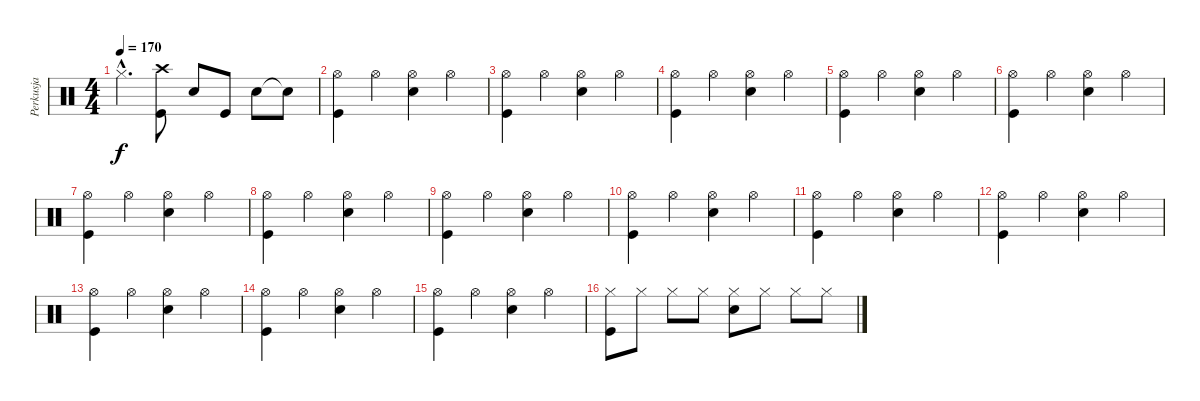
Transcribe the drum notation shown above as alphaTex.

\track ("Perkusja" "Perkusja") {instrument percussion}
\staff {score}
\articulation defaults
\ts (4 4)
\tempo 170
\clef neutral
\ks c "Hi-Hat (closed)"{hac}.4{d dy f}
("Crash high (hit)" "Kick (hit)").8 "Electric Snare (hit)".8 "Kick (hit)".8 "Electric Snare (hit)".8 "Snare (hit)"{t}.8 |
("Hi-Hat (open)" "Kick (hit)").4 "Hi-Hat (open)".4 ("Hi-Hat (open)" "Electric Snare (hit)").4 "Hi-Hat (open)".4 |
("Hi-Hat (open)" "Kick (hit)").4 "Hi-Hat (open)".4 ("Hi-Hat (open)" "Electric Snare (hit)").4 "Hi-Hat (open)".4 |
("Hi-Hat (open)" "Kick (hit)").4 "Hi-Hat (open)".4 ("Hi-Hat (open)" "Electric Snare (hit)").4 "Hi-Hat (open)".4 |
("Hi-Hat (open)" "Kick (hit)").4 "Hi-Hat (open)".4 ("Hi-Hat (open)" "Electric Snare (hit)").4 "Hi-Hat (open)".4 |
("Hi-Hat (open)" "Kick (hit)").4 "Hi-Hat (open)".4 ("Hi-Hat (open)" "Electric Snare (hit)").4 "Hi-Hat (open)".4 |
("Hi-Hat (open)" "Kick (hit)").4 "Hi-Hat (open)".4 ("Hi-Hat (open)" "Electric Snare (hit)").4 "Hi-Hat (open)".4 |
("Hi-Hat (open)" "Kick (hit)").4 "Hi-Hat (open)".4 ("Hi-Hat (open)" "Electric Snare (hit)").4 "Hi-Hat (open)".4 |
("Hi-Hat (open)" "Kick (hit)").4 "Hi-Hat (open)".4 ("Hi-Hat (open)" "Electric Snare (hit)").4 "Hi-Hat (open)".4 |
("Hi-Hat (open)" "Kick (hit)").4 "Hi-Hat (open)".4 ("Hi-Hat (open)" "Electric Snare (hit)").4 "Hi-Hat (open)".4 |
("Hi-Hat (open)" "Kick (hit)").4 "Hi-Hat (open)".4 ("Hi-Hat (open)" "Electric Snare (hit)").4 "Hi-Hat (open)".4 |
("Hi-Hat (open)" "Kick (hit)").4 "Hi-Hat (open)".4 ("Hi-Hat (open)" "Electric Snare (hit)").4 "Hi-Hat (open)".4 |
("Hi-Hat (open)" "Kick (hit)").4 "Hi-Hat (open)".4 ("Hi-Hat (open)" "Electric Snare (hit)").4 "Hi-Hat (open)".4 |
("Hi-Hat (open)" "Kick (hit)").4 "Hi-Hat (open)".4 ("Hi-Hat (open)" "Electric Snare (hit)").4 "Hi-Hat (open)".4 |
("Hi-Hat (open)" "Kick (hit)").4 "Hi-Hat (open)".4 ("Hi-Hat (open)" "Electric Snare (hit)").4 "Hi-Hat (open)".4 |
("Hi-Hat (closed)" "Kick (hit)").8 "Hi-Hat (closed)".8 "Hi-Hat (closed)".8 "Hi-Hat (closed)".8 ("Hi-Hat (closed)" "Electric Snare (hit)").8 "Hi-Hat (closed)".8 "Hi-Hat (closed)".8 "Hi-Hat (closed)".8
